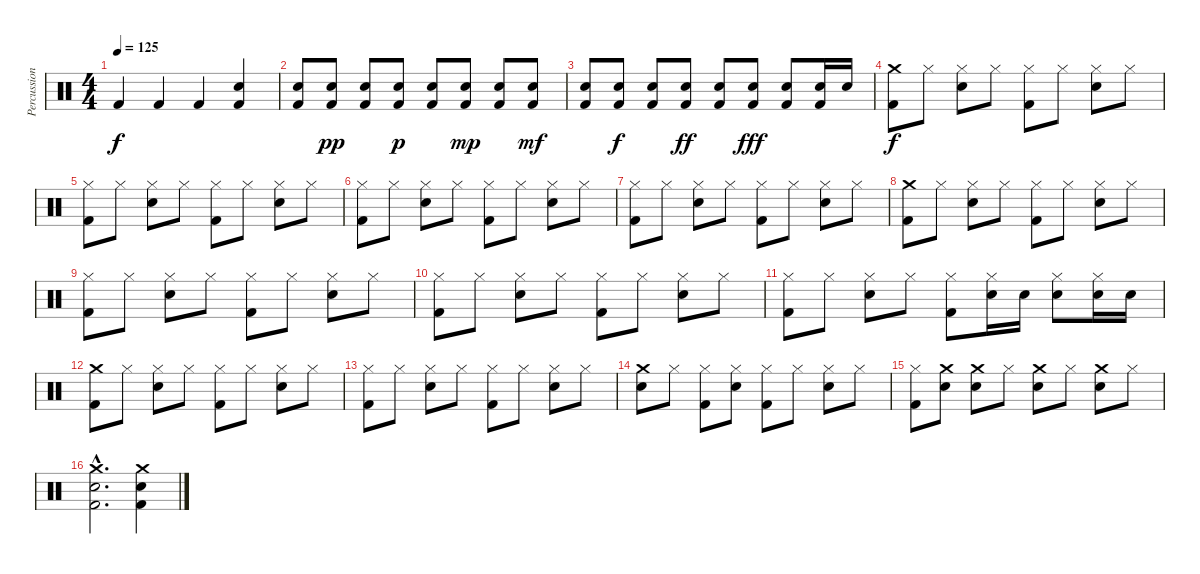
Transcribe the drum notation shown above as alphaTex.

\track ("Percussion" "Percussion") {instrument percussion}
\staff {score}
\articulation defaults
\ts (4 4)
\tempo 125
\clef neutral
\ks c "Kick (hit) 2".4{dy f} "Kick (hit) 2".4 "Kick (hit) 2".4
("Snare (hit) 2" "Kick (hit) 2").4 |
("Snare (hit) 2" "Kick (hit) 2").8 ("Snare (hit) 2" "Kick (hit) 2").8{dy pp} ("Snare (hit) 2" "Kick (hit) 2").8 ("Snare (hit) 2" "Kick (hit) 2").8{dy p} ("Snare (hit) 2" "Kick (hit) 2").8 ("Snare (hit) 2" "Kick (hit) 2").8{dy mp} ("Snare (hit) 2" "Kick (hit) 2").8 ("Snare (hit) 2" "Kick (hit) 2").8{dy mf} |
("Snare (hit) 2" "Kick (hit) 2").8 ("Snare (hit) 2" "Kick (hit) 2").8{dy f} ("Snare (hit) 2" "Kick (hit) 2").8 ("Snare (hit) 2" "Kick (hit) 2").8{dy ff} ("Snare (hit) 2" "Kick (hit) 2").8 ("Snare (hit) 2" "Kick (hit) 2").8{dy fff} ("Snare (hit) 2" "Kick (hit) 2").8 ("Snare (hit) 2" "Kick (hit) 2").16 "Snare (hit) 2".16 |
("Crash medium (hit)" "Kick (hit) 2").8{dy f} "Hi-Hat (closed)".8 ("Hi-Hat (closed)" "Snare (hit) 2").8 "Hi-Hat (closed)".8 ("Hi-Hat (closed)" "Kick (hit) 2").8 "Hi-Hat (closed)".8 ("Hi-Hat (closed)" "Snare (hit) 2").8 "Hi-Hat (closed)".8 |
("Hi-Hat (closed)" "Kick (hit) 2").8 "Hi-Hat (closed)".8 ("Hi-Hat (closed)" "Snare (hit) 2").8 "Hi-Hat (closed)".8 ("Hi-Hat (closed)" "Kick (hit) 2").8 "Hi-Hat (closed)".8 ("Hi-Hat (closed)" "Snare (hit) 2").8 "Hi-Hat (closed)".8 |
("Hi-Hat (closed)" "Kick (hit) 2").8 "Hi-Hat (closed)".8 ("Hi-Hat (closed)" "Snare (hit) 2").8 "Hi-Hat (closed)".8 ("Hi-Hat (closed)" "Kick (hit) 2").8 "Hi-Hat (closed)".8 ("Hi-Hat (closed)" "Snare (hit) 2").8 "Hi-Hat (closed)".8 |
("Hi-Hat (closed)" "Kick (hit) 2").8 "Hi-Hat (closed)".8 ("Hi-Hat (closed)" "Snare (hit) 2").8 "Hi-Hat (closed)".8 ("Hi-Hat (closed)" "Kick (hit) 2").8 "Hi-Hat (closed)".8 ("Hi-Hat (closed)" "Snare (hit) 2").8 "Hi-Hat (closed)".8 |
("Crash medium (hit)" "Kick (hit) 2").8 "Hi-Hat (closed)".8 ("Hi-Hat (closed)" "Snare (hit) 2").8 "Hi-Hat (closed)".8 ("Hi-Hat (closed)" "Kick (hit) 2").8 "Hi-Hat (closed)".8 ("Hi-Hat (closed)" "Snare (hit) 2").8 "Hi-Hat (closed)".8 |
("Hi-Hat (closed)" "Kick (hit) 2").8 "Hi-Hat (closed)".8 ("Hi-Hat (closed)" "Snare (hit) 2").8 "Hi-Hat (closed)".8 ("Hi-Hat (closed)" "Kick (hit) 2").8 "Hi-Hat (closed)".8 ("Hi-Hat (closed)" "Snare (hit) 2").8 "Hi-Hat (closed)".8 |
("Hi-Hat (closed)" "Kick (hit) 2").8 "Hi-Hat (closed)".8 ("Hi-Hat (closed)" "Snare (hit) 2").8 "Hi-Hat (closed)".8 ("Hi-Hat (closed)" "Kick (hit) 2").8 "Hi-Hat (closed)".8 ("Hi-Hat (closed)" "Snare (hit) 2").8 "Hi-Hat (closed)".8 |
("Hi-Hat (closed)" "Kick (hit) 2").8 "Hi-Hat (closed)".8 ("Hi-Hat (closed)" "Snare (hit) 2").8 "Hi-Hat (closed)".8 ("Hi-Hat (closed)" "Kick (hit) 2").8 ("Hi-Hat (closed)" "Snare (hit) 2").16 "Snare (hit) 2".16 ("Hi-Hat (closed)" "Snare (hit) 2").8 ("Hi-Hat (closed)" "Snare (hit) 2").16 "Snare (hit) 2".16 |
("Crash medium (hit)" "Kick (hit) 2").8 "Hi-Hat (closed)".8 ("Hi-Hat (closed)" "Snare (hit) 2").8 "Hi-Hat (closed)".8 ("Hi-Hat (closed)" "Kick (hit) 2").8 "Hi-Hat (closed)".8 ("Hi-Hat (closed)" "Snare (hit) 2").8 "Hi-Hat (closed)".8 |
("Hi-Hat (closed)" "Kick (hit) 2").8 "Hi-Hat (closed)".8 ("Hi-Hat (closed)" "Snare (hit) 2").8 "Hi-Hat (closed)".8 ("Hi-Hat (closed)" "Kick (hit) 2").8 "Hi-Hat (closed)".8 ("Hi-Hat (closed)" "Snare (hit) 2").8 "Hi-Hat (closed)".8 |
("Crash medium (hit)" "Snare (hit) 2").8 "Hi-Hat (closed)".8 ("Hi-Hat (closed)" "Kick (hit) 2").8 ("Hi-Hat (closed)" "Snare (hit) 2").8 ("Hi-Hat (closed)" "Kick (hit) 2").8 "Hi-Hat (closed)".8 ("Hi-Hat (closed)" "Snare (hit) 2").8 "Hi-Hat (closed)".8 |
("Hi-Hat (closed)" "Kick (hit) 2").8 ("Crash medium (hit)" "Snare (hit) 2").8 ("Crash medium (hit)" "Snare (hit) 2").8 "Hi-Hat (closed)".8 ("Crash medium (hit)" "Snare (hit) 2").8 "Hi-Hat (closed)".8 ("Crash medium (hit)" "Snare (hit) 2").8 "Hi-Hat (closed)".8 |
("Crash medium (hit)"{hac} "Snare (hit) 2"{hac} "Kick (hit) 2"{hac}).2{d} ("Crash medium (hit)" "Snare (hit) 2" "Kick (hit) 2").4
